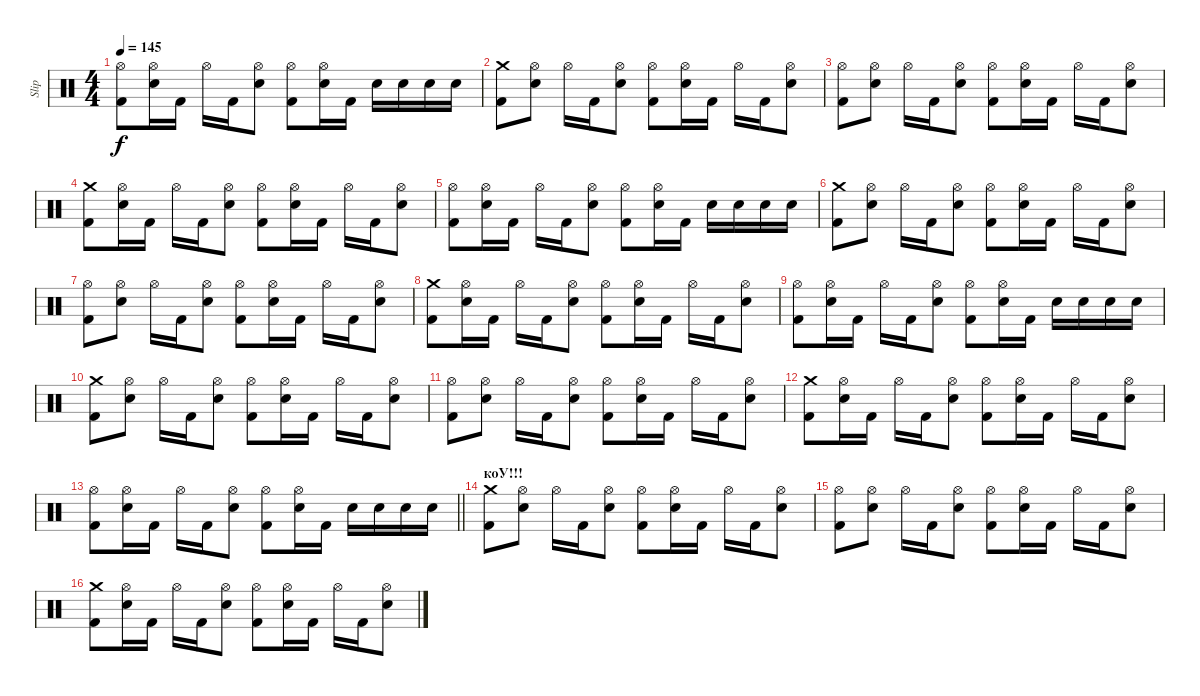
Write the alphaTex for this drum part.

\track ("Slip" "Slip") {instrument percussion}
\staff {score}
\articulation defaults
\ts (4 4)
\tempo 145
\clef neutral
\ks c
("Kick (hit) 2" "Hi-Hat (open)").8{dy f} ("Electric Snare (hit)" "Hi-Hat (open)").16 "Kick (hit) 2".16 "Hi-Hat (open)".16 "Kick (hit) 2".16 ("Electric Snare (hit)" "Hi-Hat (open)").8 ("Kick (hit) 2" "Hi-Hat (open)").8 ("Electric Snare (hit)" "Hi-Hat (open)").16 "Kick (hit) 2".16 "Electric Snare (hit)".16 "Electric Snare (hit)".16 "Electric Snare (hit)".16 "Electric Snare (hit)".16 |
("Kick (hit) 2" "Crash medium (hit)").8 ("Electric Snare (hit)" "Hi-Hat (open)").8 "Hi-Hat (open)".16 "Kick (hit) 2".16 ("Electric Snare (hit)" "Hi-Hat (open)").8 ("Kick (hit) 2" "Hi-Hat (open)").8 ("Electric Snare (hit)" "Hi-Hat (open)").16 "Kick (hit) 2".16 "Hi-Hat (open)".16 "Kick (hit) 2".16 ("Electric Snare (hit)" "Hi-Hat (open)").8 |
("Kick (hit) 2" "Hi-Hat (open)").8 ("Electric Snare (hit)" "Hi-Hat (open)").8 "Hi-Hat (open)".16 "Kick (hit) 2".16 ("Electric Snare (hit)" "Hi-Hat (open)").8 ("Kick (hit) 2" "Hi-Hat (open)").8 ("Electric Snare (hit)" "Hi-Hat (open)").16 "Kick (hit) 2".16 "Hi-Hat (open)".16 "Kick (hit) 2".16 ("Electric Snare (hit)" "Hi-Hat (open)").8 |
("Kick (hit) 2" "Crash medium (hit)").8 ("Electric Snare (hit)" "Hi-Hat (open)").16 "Kick (hit) 2".16 "Hi-Hat (open)".16 "Kick (hit) 2".16 ("Electric Snare (hit)" "Hi-Hat (open)").8 ("Kick (hit) 2" "Hi-Hat (open)").8 ("Electric Snare (hit)" "Hi-Hat (open)").16 "Kick (hit) 2".16 "Hi-Hat (open)".16 "Kick (hit) 2".16 ("Electric Snare (hit)" "Hi-Hat (open)").8 |
("Kick (hit) 2" "Hi-Hat (open)").8 ("Electric Snare (hit)" "Hi-Hat (open)").16 "Kick (hit) 2".16 "Hi-Hat (open)".16 "Kick (hit) 2".16 ("Electric Snare (hit)" "Hi-Hat (open)").8 ("Kick (hit) 2" "Hi-Hat (open)").8 ("Electric Snare (hit)" "Hi-Hat (open)").16 "Kick (hit) 2".16 "Electric Snare (hit)".16 "Electric Snare (hit)".16 "Electric Snare (hit)".16 "Electric Snare (hit)".16 |
("Kick (hit) 2" "Crash medium (hit)").8 ("Electric Snare (hit)" "Hi-Hat (open)").8 "Hi-Hat (open)".16 "Kick (hit) 2".16 ("Electric Snare (hit)" "Hi-Hat (open)").8 ("Kick (hit) 2" "Hi-Hat (open)").8 ("Electric Snare (hit)" "Hi-Hat (open)").16 "Kick (hit) 2".16 "Hi-Hat (open)".16 "Kick (hit) 2".16 ("Electric Snare (hit)" "Hi-Hat (open)").8 |
("Kick (hit) 2" "Hi-Hat (open)").8 ("Electric Snare (hit)" "Hi-Hat (open)").8 "Hi-Hat (open)".16 "Kick (hit) 2".16 ("Electric Snare (hit)" "Hi-Hat (open)").8 ("Kick (hit) 2" "Hi-Hat (open)").8 ("Electric Snare (hit)" "Hi-Hat (open)").16 "Kick (hit) 2".16 "Hi-Hat (open)".16 "Kick (hit) 2".16 ("Electric Snare (hit)" "Hi-Hat (open)").8 |
("Kick (hit) 2" "Crash medium (hit)").8 ("Electric Snare (hit)" "Hi-Hat (open)").16 "Kick (hit) 2".16 "Hi-Hat (open)".16 "Kick (hit) 2".16 ("Electric Snare (hit)" "Hi-Hat (open)").8 ("Kick (hit) 2" "Hi-Hat (open)").8 ("Electric Snare (hit)" "Hi-Hat (open)").16 "Kick (hit) 2".16 "Hi-Hat (open)".16 "Kick (hit) 2".16 ("Electric Snare (hit)" "Hi-Hat (open)").8 |
("Kick (hit) 2" "Hi-Hat (open)").8 ("Electric Snare (hit)" "Hi-Hat (open)").16 "Kick (hit) 2".16 "Hi-Hat (open)".16 "Kick (hit) 2".16 ("Electric Snare (hit)" "Hi-Hat (open)").8 ("Kick (hit) 2" "Hi-Hat (open)").8 ("Electric Snare (hit)" "Hi-Hat (open)").16 "Kick (hit) 2".16 "Electric Snare (hit)".16 "Electric Snare (hit)".16 "Electric Snare (hit)".16 "Electric Snare (hit)".16 |
("Kick (hit) 2" "Crash medium (hit)").8 ("Electric Snare (hit)" "Hi-Hat (open)").8 "Hi-Hat (open)".16 "Kick (hit) 2".16 ("Electric Snare (hit)" "Hi-Hat (open)").8 ("Kick (hit) 2" "Hi-Hat (open)").8 ("Electric Snare (hit)" "Hi-Hat (open)").16 "Kick (hit) 2".16 "Hi-Hat (open)".16 "Kick (hit) 2".16 ("Electric Snare (hit)" "Hi-Hat (open)").8 |
("Kick (hit) 2" "Hi-Hat (open)").8 ("Electric Snare (hit)" "Hi-Hat (open)").8 "Hi-Hat (open)".16 "Kick (hit) 2".16 ("Electric Snare (hit)" "Hi-Hat (open)").8 ("Kick (hit) 2" "Hi-Hat (open)").8 ("Electric Snare (hit)" "Hi-Hat (open)").16 "Kick (hit) 2".16 "Hi-Hat (open)".16 "Kick (hit) 2".16 ("Electric Snare (hit)" "Hi-Hat (open)").8 |
("Kick (hit) 2" "Crash medium (hit)").8 ("Electric Snare (hit)" "Hi-Hat (open)").16 "Kick (hit) 2".16 "Hi-Hat (open)".16 "Kick (hit) 2".16 ("Electric Snare (hit)" "Hi-Hat (open)").8 ("Kick (hit) 2" "Hi-Hat (open)").8 ("Electric Snare (hit)" "Hi-Hat (open)").16 "Kick (hit) 2".16 "Hi-Hat (open)".16 "Kick (hit) 2".16 ("Electric Snare (hit)" "Hi-Hat (open)").8 |
\barLineRight lightlight
("Kick (hit) 2" "Hi-Hat (open)").8 ("Electric Snare (hit)" "Hi-Hat (open)").16 "Kick (hit) 2".16 "Hi-Hat (open)".16 "Kick (hit) 2".16 ("Electric Snare (hit)" "Hi-Hat (open)").8 ("Kick (hit) 2" "Hi-Hat (open)").8 ("Electric Snare (hit)" "Hi-Hat (open)").16 "Kick (hit) 2".16 "Electric Snare (hit)".16 "Electric Snare (hit)".16 "Electric Snare (hit)".16 "Electric Snare (hit)".16 |
\section ("" "коУ!!!")
("Kick (hit) 2" "Crash medium (hit)").8 ("Electric Snare (hit)" "Hi-Hat (open)").8 "Hi-Hat (open)".16 "Kick (hit) 2".16 ("Electric Snare (hit)" "Hi-Hat (open)").8 ("Kick (hit) 2" "Hi-Hat (open)").8 ("Electric Snare (hit)" "Hi-Hat (open)").16 "Kick (hit) 2".16 "Hi-Hat (open)".16 "Kick (hit) 2".16 ("Electric Snare (hit)" "Hi-Hat (open)").8 |
("Kick (hit) 2" "Hi-Hat (open)").8 ("Electric Snare (hit)" "Hi-Hat (open)").8 "Hi-Hat (open)".16 "Kick (hit) 2".16 ("Electric Snare (hit)" "Hi-Hat (open)").8 ("Kick (hit) 2" "Hi-Hat (open)").8 ("Electric Snare (hit)" "Hi-Hat (open)").16 "Kick (hit) 2".16 "Hi-Hat (open)".16 "Kick (hit) 2".16 ("Electric Snare (hit)" "Hi-Hat (open)").8 |
("Kick (hit) 2" "Crash medium (hit)").8 ("Electric Snare (hit)" "Hi-Hat (open)").16 "Kick (hit) 2".16 "Hi-Hat (open)".16 "Kick (hit) 2".16 ("Electric Snare (hit)" "Hi-Hat (open)").8 ("Kick (hit) 2" "Hi-Hat (open)").8 ("Electric Snare (hit)" "Hi-Hat (open)").16 "Kick (hit) 2".16 "Hi-Hat (open)".16 "Kick (hit) 2".16 ("Electric Snare (hit)" "Hi-Hat (open)").8
